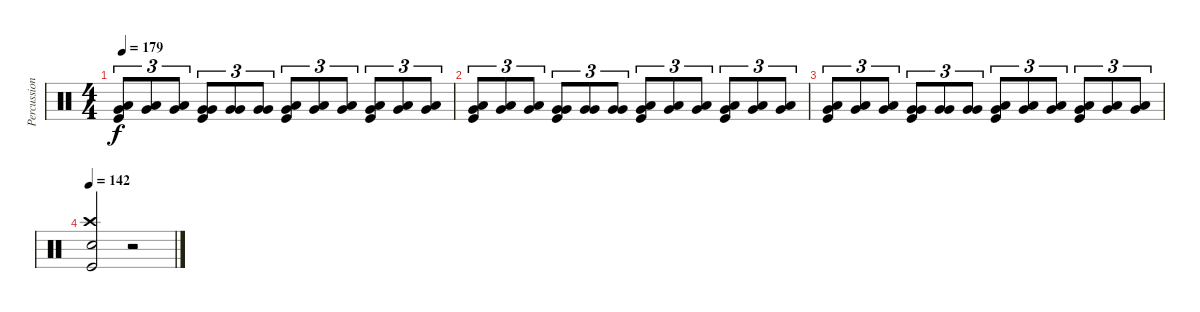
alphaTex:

\track ("Percussion" "Percussion") {instrument percussion}
\staff {score}
\articulation defaults
\ts (4 4)
\tempo 179
\clef neutral
\ks c
("Low Tom (hit)" "Very Low Tom (hit)" "Kick (hit)").8{tu (3 2) dy f} ("Low Tom (hit)" "Very Low Tom (hit)").8{tu (3 2)} ("Low Tom (hit)" "Very Low Tom (hit)").8{tu (3 2)} ("Very Low Tom (hit)" "Very Low Tom (hit)" "Kick (hit)").8{tu (3 2)} ("Very Low Tom (hit)" "Very Low Tom (hit)").8{tu (3 2)} ("Very Low Tom (hit)" "Very Low Tom (hit)").8{tu (3 2)} ("Low Tom (hit)" "Very Low Tom (hit)" "Kick (hit)").8{tu (3 2)} ("Low Tom (hit)" "Very Low Tom (hit)").8{tu (3 2)} ("Low Tom (hit)" "Very Low Tom (hit)").8{tu (3 2)} ("Very Low Tom (hit)" "Low Floor Tom (hit)" "Kick (hit)").8{tu (3 2)} ("Very Low Tom (hit)" "Low Floor Tom (hit)").8{tu (3 2)} ("Very Low Tom (hit)" "Low Floor Tom (hit)").8{tu (3 2)} |
("Low Tom (hit)" "Very Low Tom (hit)" "Kick (hit)").8{tu (3 2)} ("Low Tom (hit)" "Very Low Tom (hit)").8{tu (3 2)} ("Low Tom (hit)" "Very Low Tom (hit)").8{tu (3 2)} ("Very Low Tom (hit)" "Very Low Tom (hit)" "Kick (hit)").8{tu (3 2)} ("Very Low Tom (hit)" "Very Low Tom (hit)").8{tu (3 2)} ("Very Low Tom (hit)" "Very Low Tom (hit)").8{tu (3 2)} ("Low Tom (hit)" "Very Low Tom (hit)" "Kick (hit)").8{tu (3 2)} ("Low Tom (hit)" "Very Low Tom (hit)").8{tu (3 2)} ("Low Tom (hit)" "Very Low Tom (hit)").8{tu (3 2)} ("Very Low Tom (hit)" "Low Floor Tom (hit)" "Kick (hit)").8{tu (3 2)} ("Very Low Tom (hit)" "Low Floor Tom (hit)").8{tu (3 2)} ("Very Low Tom (hit)" "Low Floor Tom (hit)").8{tu (3 2)} |
("Low Tom (hit)" "Very Low Tom (hit)" "Kick (hit)").8{tu (3 2)} ("Low Tom (hit)" "Very Low Tom (hit)").8{tu (3 2)} ("Low Tom (hit)" "Very Low Tom (hit)").8{tu (3 2)} ("Very Low Tom (hit)" "Very Low Tom (hit)" "Kick (hit)").8{tu (3 2)} ("Very Low Tom (hit)" "Very Low Tom (hit)").8{tu (3 2)} ("Very Low Tom (hit)" "Very Low Tom (hit)").8{tu (3 2)} ("Low Tom (hit)" "Very Low Tom (hit)" "Kick (hit)").8{tu (3 2)} ("Low Tom (hit)" "Very Low Tom (hit)").8{tu (3 2)} ("Low Tom (hit)" "Very Low Tom (hit)").8{tu (3 2)} ("Very Low Tom (hit)" "Low Floor Tom (hit)" "Kick (hit)").8{tu (3 2)} ("Very Low Tom (hit)" "Low Floor Tom (hit)").8{tu (3 2)} ("Very Low Tom (hit)" "Low Floor Tom (hit)").8{tu (3 2)} |
\tempo 142
("Crash high (hit)" "Electric Snare (hit)" "Kick (hit)").2 r.2
